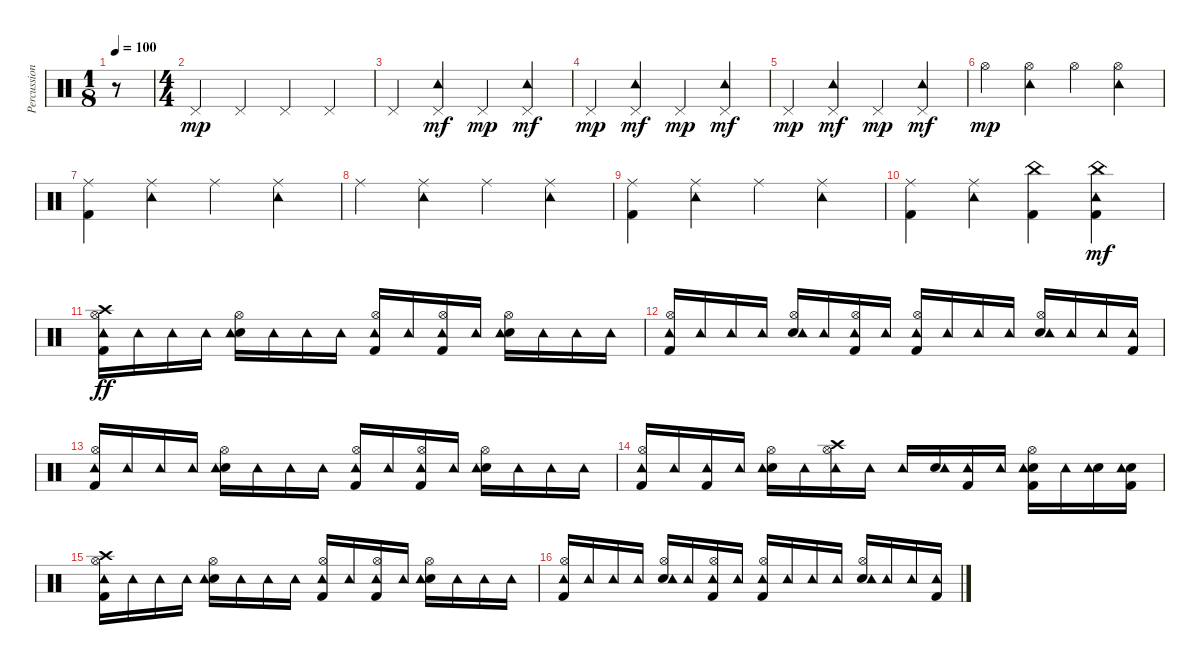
\track ("Percussions" "Percussion") {instrument percussion}
\staff {score}
\articulation defaults
\ts (1 8)
\tempo 100
\clef neutral
\ks c
r.8{dy mp} |
\ts (4 4)
"Pedal Hi-Hat (hit)".4 "Pedal Hi-Hat (hit)".4 "Pedal Hi-Hat (hit)".4 "Pedal Hi-Hat (hit)".4 |
"Pedal Hi-Hat (hit)".4 ("Pedal Hi-Hat (hit)" "Tambourine (hit)").4{dy mf} "Pedal Hi-Hat (hit)".4{dy mp} ("Pedal Hi-Hat (hit)" "Tambourine (hit)").4{dy mf} |
"Pedal Hi-Hat (hit)".4{dy mp} ("Pedal Hi-Hat (hit)" "Tambourine (hit)").4{dy mf} "Pedal Hi-Hat (hit)".4{dy mp} ("Pedal Hi-Hat (hit)" "Tambourine (hit)").4{dy mf} |
"Pedal Hi-Hat (hit)".4{dy mp} ("Pedal Hi-Hat (hit)" "Tambourine (hit)").4{dy mf} "Pedal Hi-Hat (hit)".4{dy mp} ("Pedal Hi-Hat (hit)" "Tambourine (hit)").4{dy mf} |
"Hi-Hat (open)".4{dy mp} ("Hi-Hat (open)" "Tambourine (hit)").4 "Hi-Hat (open)".4 ("Hi-Hat (open)" "Tambourine (hit)").4 |
("Kick (hit) 2" "Ride (middle)").4 ("Ride (middle)" "Tambourine (hit)").4 "Ride (middle)".4 ("Ride (middle)" "Tambourine (hit)").4 |
"Ride (middle)".4 ("Ride (middle)" "Tambourine (hit)").4 "Ride (middle)".4 ("Ride (middle)" "Tambourine (hit)").4 |
("Kick (hit) 2" "Ride (middle)").4 ("Ride (middle)" "Tambourine (hit)").4 "Ride (middle)".4 ("Ride (middle)" "Tambourine (hit)").4 |
("Kick (hit) 2" "Ride (middle)").4 ("Ride (middle)" "Tambourine (hit)").4 ("Kick (hit) 2" "China (hit)").4 ("Kick (hit) 2" "China (hit)" "Tambourine (hit)").4{dy mf} |
("Kick (hit) 2" "Hi-Hat (open)" "Crash high (hit)" "Tambourine (hit)").16{dy ff} "Tambourine (hit)".16 "Tambourine (hit)".16 "Tambourine (hit)".16 ("Snare (hit) 2" "Hi-Hat (open)" "Tambourine (hit)").16 "Tambourine (hit)".16 "Tambourine (hit)".16 "Tambourine (hit)".16 ("Kick (hit) 2" "Hi-Hat (open)" "Tambourine (hit)").16 "Tambourine (hit)".16 ("Kick (hit) 2" "Hi-Hat (open)" "Tambourine (hit)").16 "Tambourine (hit)".16 ("Snare (hit) 2" "Hi-Hat (open)" "Tambourine (hit)").16 "Tambourine (hit)".16 "Tambourine (hit)".16 "Tambourine (hit)".16 |
("Kick (hit) 2" "Hi-Hat (open)" "Tambourine (hit)").16 "Tambourine (hit)".16 "Tambourine (hit)".16 "Tambourine (hit)".16 ("Snare (hit) 2" "Hi-Hat (open)" "Tambourine (hit)").16 "Tambourine (hit)".16 ("Kick (hit) 2" "Hi-Hat (open)" "Tambourine (hit)").16 "Tambourine (hit)".16 ("Kick (hit) 2" "Hi-Hat (open)" "Tambourine (hit)").16 "Tambourine (hit)".16 "Tambourine (hit)".16 "Tambourine (hit)".16 ("Snare (hit) 2" "Hi-Hat (open)" "Tambourine (hit)").16 "Tambourine (hit)".16 "Tambourine (hit)".16 ("Kick (hit) 2" "Tambourine (hit)").16 |
("Kick (hit) 2" "Hi-Hat (open)" "Tambourine (hit)").16 "Tambourine (hit)".16 "Tambourine (hit)".16 "Tambourine (hit)".16 ("Snare (hit) 2" "Hi-Hat (open)" "Tambourine (hit)").16 "Tambourine (hit)".16 "Tambourine (hit)".16 "Tambourine (hit)".16 ("Kick (hit) 2" "Hi-Hat (open)" "Tambourine (hit)").16 "Tambourine (hit)".16 ("Kick (hit) 2" "Hi-Hat (open)" "Tambourine (hit)").16 "Tambourine (hit)".16 ("Snare (hit) 2" "Hi-Hat (open)" "Tambourine (hit)").16 "Tambourine (hit)".16 "Tambourine (hit)".16 "Tambourine (hit)".16 |
("Kick (hit) 2" "Hi-Hat (open)" "Tambourine (hit)").16 "Tambourine (hit)".16 ("Kick (hit) 2" "Tambourine (hit)").16 "Tambourine (hit)".16 ("Snare (hit) 2" "Hi-Hat (open)" "Tambourine (hit)").16 "Tambourine (hit)".16 ("Hi-Hat (open)" "Crash high (hit)" "Tambourine (hit)").16 "Tambourine (hit)".16 "Tambourine (hit)".16 ("Snare (hit) 2" "Tambourine (hit)").16 ("Kick (hit) 2" "Tambourine (hit)").16 "Tambourine (hit)".16 ("Kick (hit) 2" "Snare (hit) 2" "Hi-Hat (open)" "Tambourine (hit)").16 "Tambourine (hit)".16 ("Snare (hit) 2" "Tambourine (hit)").16 ("Kick (hit) 2" "Snare (hit) 2" "Tambourine (hit)").16 |
("Kick (hit) 2" "Hi-Hat (open)" "Crash high (hit)" "Tambourine (hit)").16 "Tambourine (hit)".16 "Tambourine (hit)".16 "Tambourine (hit)".16 ("Snare (hit) 2" "Hi-Hat (open)" "Tambourine (hit)").16 "Tambourine (hit)".16 "Tambourine (hit)".16 "Tambourine (hit)".16 ("Kick (hit) 2" "Hi-Hat (open)" "Tambourine (hit)").16 "Tambourine (hit)".16 ("Kick (hit) 2" "Hi-Hat (open)" "Tambourine (hit)").16 "Tambourine (hit)".16 ("Snare (hit) 2" "Hi-Hat (open)" "Tambourine (hit)").16 "Tambourine (hit)".16 "Tambourine (hit)".16 "Tambourine (hit)".16 |
("Kick (hit) 2" "Hi-Hat (open)" "Tambourine (hit)").16 "Tambourine (hit)".16 "Tambourine (hit)".16 "Tambourine (hit)".16 ("Snare (hit) 2" "Hi-Hat (open)" "Tambourine (hit)").16 "Tambourine (hit)".16 ("Kick (hit) 2" "Hi-Hat (open)" "Tambourine (hit)").16 "Tambourine (hit)".16 ("Kick (hit) 2" "Hi-Hat (open)" "Tambourine (hit)").16 "Tambourine (hit)".16 "Tambourine (hit)".16 "Tambourine (hit)".16 ("Snare (hit) 2" "Hi-Hat (open)" "Tambourine (hit)").16 "Tambourine (hit)".16 "Tambourine (hit)".16 ("Kick (hit) 2" "Tambourine (hit)").16
